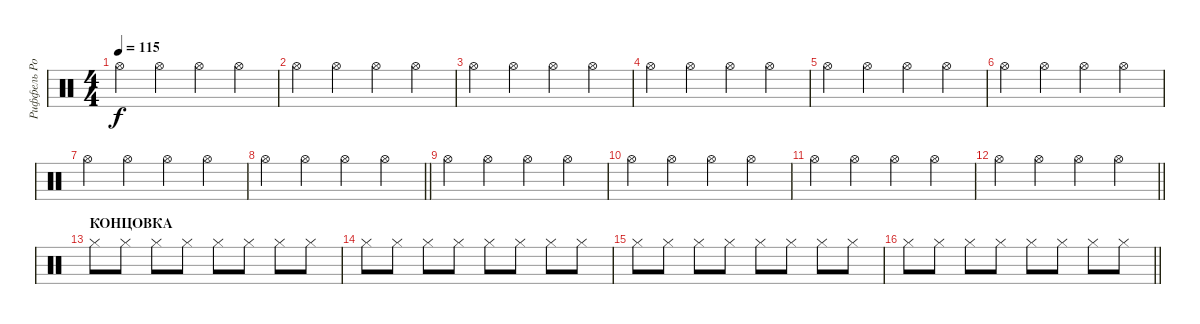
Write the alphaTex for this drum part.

\track ("Риффель Роман (хэты)" "Риффель Ро") {instrument percussion}
\staff {score}
\articulation defaults
\ts (4 4)
\tempo 115
\clef neutral
\ks c "Hi-Hat (open)".4{dy f} "Hi-Hat (open)".4 "Hi-Hat (open)".4 "Hi-Hat (open)".4
|
"Hi-Hat (open)".4 "Hi-Hat (open)".4 "Hi-Hat (open)".4 "Hi-Hat (open)".4 |
"Hi-Hat (open)".4 "Hi-Hat (open)".4 "Hi-Hat (open)".4 "Hi-Hat (open)".4 |
"Hi-Hat (open)".4 "Hi-Hat (open)".4 "Hi-Hat (open)".4 "Hi-Hat (open)".4 |
"Hi-Hat (open)".4 "Hi-Hat (open)".4 "Hi-Hat (open)".4 "Hi-Hat (open)".4 |
"Hi-Hat (open)".4 "Hi-Hat (open)".4 "Hi-Hat (open)".4 "Hi-Hat (open)".4 |
"Hi-Hat (open)".4 "Hi-Hat (open)".4 "Hi-Hat (open)".4 "Hi-Hat (open)".4 |
\barLineRight lightlight "Hi-Hat (open)".4 "Hi-Hat (open)".4 "Hi-Hat (open)".4 "Hi-Hat (open)".4
|
"Hi-Hat (open)".4 "Hi-Hat (open)".4 "Hi-Hat (open)".4 "Hi-Hat (open)".4 |
"Hi-Hat (open)".4 "Hi-Hat (open)".4 "Hi-Hat (open)".4 "Hi-Hat (open)".4 |
"Hi-Hat (open)".4 "Hi-Hat (open)".4 "Hi-Hat (open)".4 "Hi-Hat (open)".4 |
\barLineRight lightlight "Hi-Hat (open)".4 "Hi-Hat (open)".4 "Hi-Hat (open)".4 "Hi-Hat (open)".4
|
\section ("" "КОНЦОВКА")
"Hi-Hat (closed)".8 "Hi-Hat (closed)".8 "Hi-Hat (closed)".8 "Hi-Hat (closed)".8 "Hi-Hat (closed)".8 "Hi-Hat (closed)".8 "Hi-Hat (closed)".8 "Hi-Hat (closed)".8 |
"Hi-Hat (closed)".8 "Hi-Hat (closed)".8 "Hi-Hat (closed)".8 "Hi-Hat (closed)".8 "Hi-Hat (closed)".8 "Hi-Hat (closed)".8 "Hi-Hat (closed)".8 "Hi-Hat (closed)".8 |
"Hi-Hat (closed)".8 "Hi-Hat (closed)".8 "Hi-Hat (closed)".8 "Hi-Hat (closed)".8 "Hi-Hat (closed)".8 "Hi-Hat (closed)".8 "Hi-Hat (closed)".8 "Hi-Hat (closed)".8 |
\barLineRight lightlight "Hi-Hat (closed)".8 "Hi-Hat (closed)".8 "Hi-Hat (closed)".8 "Hi-Hat (closed)".8 "Hi-Hat (closed)".8 "Hi-Hat (closed)".8 "Hi-Hat (closed)".8 "Hi-Hat (closed)".8
